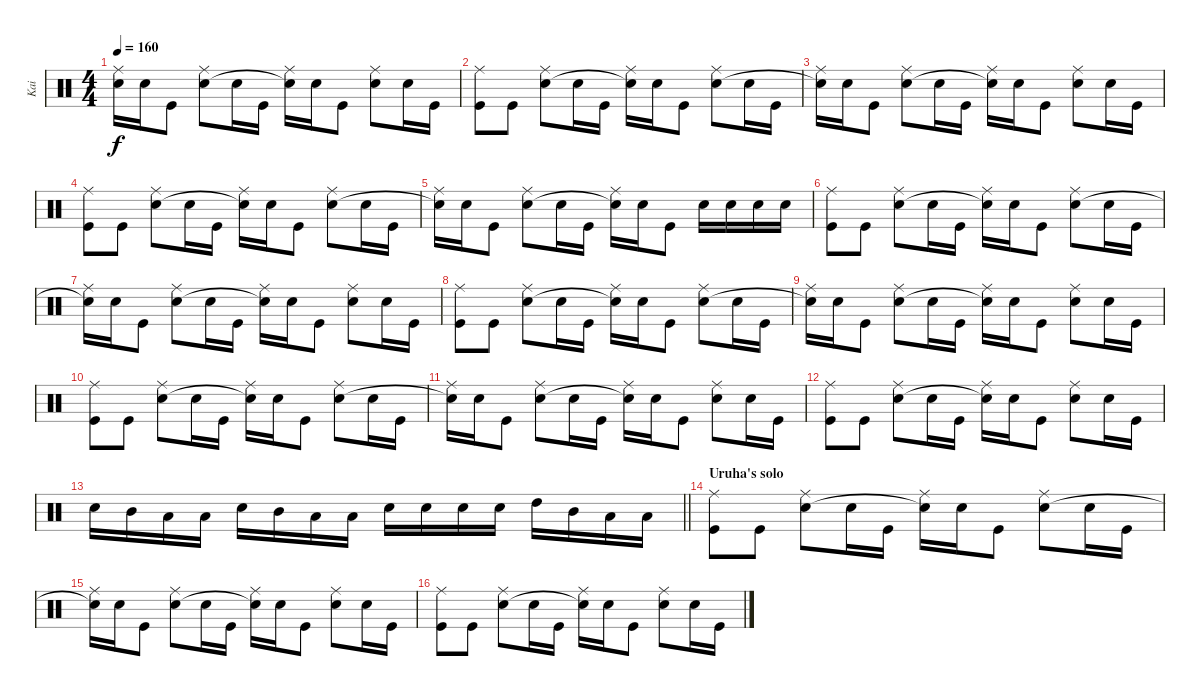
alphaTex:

\track ("Kai" "Kai") {instrument percussion}
\staff {score}
\articulation defaults
\ts (4 4)
\tempo 160
\clef neutral
\ks c
("Ride (middle)" "Snare (hit)"{t}).16{dy f} "Snare (hit) 2".16 "Kick (hit)".8 ("Ride (middle)" "Snare (hit) 2").8 "Snare (hit) 2".16 "Kick (hit)".16 ("Ride (middle)" "Snare (hit)"{t}).16 "Snare (hit) 2".16 "Kick (hit)".8 ("Ride (middle)" "Snare (hit) 2").8 "Snare (hit) 2".16 "Kick (hit)".16 |
("Ride (middle)" "Kick (hit)").8 "Kick (hit)".8 ("Ride (middle)" "Snare (hit) 2").8 "Snare (hit) 2".16 "Kick (hit)".16 ("Ride (middle)" "Snare (hit)"{t}).16 "Snare (hit) 2".16 "Kick (hit)".8 ("Ride (middle)" "Snare (hit) 2").8 "Snare (hit) 2".16 "Kick (hit)".16 |
("Ride (middle)" "Snare (hit)"{t}).16 "Snare (hit) 2".16 "Kick (hit)".8 ("Ride (middle)" "Snare (hit) 2").8 "Snare (hit) 2".16 "Kick (hit)".16 ("Ride (middle)" "Snare (hit)"{t}).16 "Snare (hit) 2".16 "Kick (hit)".8 ("Ride (middle)" "Snare (hit) 2").8 "Snare (hit) 2".16 "Kick (hit)".16 |
("Ride (middle)" "Kick (hit)").8 "Kick (hit)".8 ("Ride (middle)" "Snare (hit) 2").8 "Snare (hit) 2".16 "Kick (hit)".16 ("Ride (middle)" "Snare (hit)"{t}).16 "Snare (hit) 2".16 "Kick (hit)".8 ("Ride (middle)" "Snare (hit) 2").8 "Snare (hit) 2".16 "Kick (hit)".16 |
("Ride (middle)" "Snare (hit)"{t}).16 "Snare (hit) 2".16 "Kick (hit)".8 ("Ride (middle)" "Snare (hit) 2").8 "Snare (hit) 2".16 "Kick (hit)".16 ("Ride (middle)" "Snare (hit)"{t}).16 "Snare (hit) 2".16 "Kick (hit)".8 "Snare (hit) 2".16 "Snare (hit) 2".16 "Snare (hit) 2".16 "Snare (hit) 2".16 |
("Ride (middle)" "Kick (hit)").8 "Kick (hit)".8 ("Ride (middle)" "Snare (hit) 2").8 "Snare (hit) 2".16 "Kick (hit)".16 ("Ride (middle)" "Snare (hit)"{t}).16 "Snare (hit) 2".16 "Kick (hit)".8 ("Ride (middle)" "Snare (hit) 2").8 "Snare (hit) 2".16 "Kick (hit)".16 |
("Ride (middle)" "Snare (hit)"{t}).16 "Snare (hit) 2".16 "Kick (hit)".8 ("Ride (middle)" "Snare (hit) 2").8 "Snare (hit) 2".16 "Kick (hit)".16 ("Ride (middle)" "Snare (hit)"{t}).16 "Snare (hit) 2".16 "Kick (hit)".8 ("Ride (middle)" "Snare (hit) 2").8 "Snare (hit) 2".16 "Kick (hit)".16 |
("Ride (middle)" "Kick (hit)").8 "Kick (hit)".8 ("Ride (middle)" "Snare (hit) 2").8 "Snare (hit) 2".16 "Kick (hit)".16 ("Ride (middle)" "Snare (hit)"{t}).16 "Snare (hit) 2".16 "Kick (hit)".8 ("Ride (middle)" "Snare (hit) 2").8 "Snare (hit) 2".16 "Kick (hit)".16 |
("Ride (middle)" "Snare (hit)"{t}).16 "Snare (hit) 2".16 "Kick (hit)".8 ("Ride (middle)" "Snare (hit) 2").8 "Snare (hit) 2".16 "Kick (hit)".16 ("Ride (middle)" "Snare (hit)"{t}).16 "Snare (hit) 2".16 "Kick (hit)".8 ("Ride (middle)" "Snare (hit) 2").8 "Snare (hit) 2".16 "Kick (hit)".16 |
("Ride (middle)" "Kick (hit)").8 "Kick (hit)".8 ("Ride (middle)" "Snare (hit) 2").8 "Snare (hit) 2".16 "Kick (hit)".16 ("Ride (middle)" "Snare (hit)"{t}).16 "Snare (hit) 2".16 "Kick (hit)".8 ("Ride (middle)" "Snare (hit) 2").8 "Snare (hit) 2".16 "Kick (hit)".16 |
("Ride (middle)" "Snare (hit)"{t}).16 "Snare (hit) 2".16 "Kick (hit)".8 ("Ride (middle)" "Snare (hit) 2").8 "Snare (hit) 2".16 "Kick (hit)".16 ("Ride (middle)" "Snare (hit)"{t}).16 "Snare (hit) 2".16 "Kick (hit)".8 ("Ride (middle)" "Snare (hit) 2").8 "Snare (hit) 2".16 "Kick (hit)".16 |
("Ride (middle)" "Kick (hit)").8 "Kick (hit)".8 ("Ride (middle)" "Snare (hit) 2").8 "Snare (hit) 2".16 "Kick (hit)".16 ("Ride (middle)" "Snare (hit)"{t}).16 "Snare (hit) 2".16 "Kick (hit)".8 ("Ride (middle)" "Snare (hit) 2").8 "Snare (hit) 2".16 "Kick (hit)".16 |
\barLineRight lightlight "Snare (hit) 2".16 "Mid Tom (hit)".16 "Low Tom (hit)".16 "Low Tom (hit)".16 "Snare (hit) 2".16 "Mid Tom (hit)".16 "Low Tom (hit)".16 "Low Tom (hit)".16 "Snare (hit) 2".16 "Snare (hit) 2".16 "Snare (hit) 2".16 "Snare (hit) 2".16 "High Tom (hit)".16 "Mid Tom (hit)".16 "Low Tom (hit)".16 "Low Tom (hit)".16
|
\section ("" "Uruha's solo")
("Ride (middle)" "Kick (hit)").8 "Kick (hit)".8 ("Ride (middle)" "Snare (hit) 2").8 "Snare (hit) 2".16 "Kick (hit)".16 ("Ride (middle)" "Snare (hit)"{t}).16 "Snare (hit) 2".16 "Kick (hit)".8 ("Ride (middle)" "Snare (hit) 2").8 "Snare (hit) 2".16 "Kick (hit)".16 |
("Ride (middle)" "Snare (hit)"{t}).16 "Snare (hit) 2".16 "Kick (hit)".8 ("Ride (middle)" "Snare (hit) 2").8 "Snare (hit) 2".16 "Kick (hit)".16 ("Ride (middle)" "Snare (hit)"{t}).16 "Snare (hit) 2".16 "Kick (hit)".8 ("Ride (middle)" "Snare (hit) 2").8 "Snare (hit) 2".16 "Kick (hit)".16 |
("Ride (middle)" "Kick (hit)").8 "Kick (hit)".8 ("Ride (middle)" "Snare (hit) 2").8 "Snare (hit) 2".16 "Kick (hit)".16 ("Ride (middle)" "Snare (hit)"{t}).16 "Snare (hit) 2".16 "Kick (hit)".8 ("Ride (middle)" "Snare (hit) 2").8 "Snare (hit) 2".16 "Kick (hit)".16
